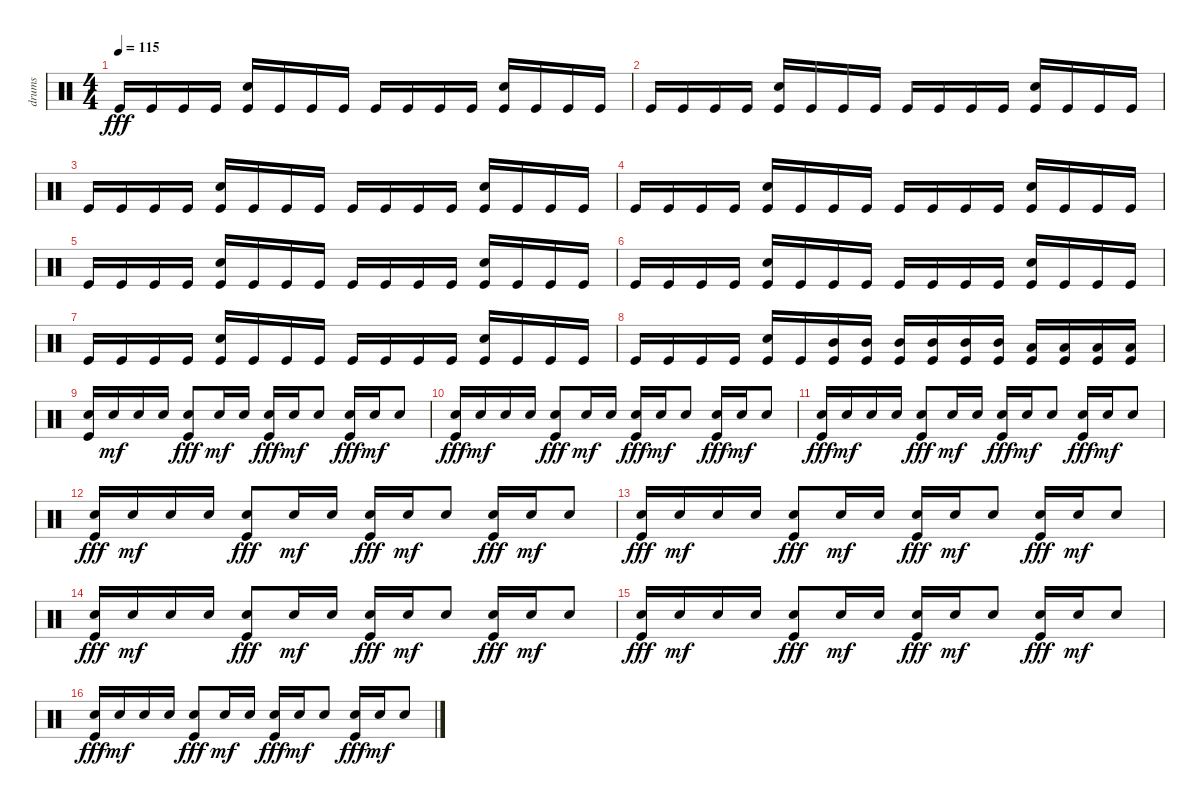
\track ("drums" "drums") {instrument percussion}
\staff {score}
\articulation defaults
\ts (4 4)
\tempo 115
\clef neutral
\ks c "Kick (hit)".16{dy fff} "Kick (hit)".16 "Kick (hit)".16 "Kick (hit)".16
("Electric Snare (hit)" "Kick (hit)").16 "Kick (hit)".16 "Kick (hit)".16 "Kick (hit)".16 "Kick (hit)".16 "Kick (hit)".16 "Kick (hit)".16 "Kick (hit)".16 ("Electric Snare (hit)" "Kick (hit)").16 "Kick (hit)".16 "Kick (hit)".16 "Kick (hit)".16 |
"Kick (hit)".16 "Kick (hit)".16 "Kick (hit)".16 "Kick (hit)".16 ("Electric Snare (hit)" "Kick (hit)").16 "Kick (hit)".16 "Kick (hit)".16 "Kick (hit)".16 "Kick (hit)".16 "Kick (hit)".16 "Kick (hit)".16 "Kick (hit)".16 ("Electric Snare (hit)" "Kick (hit)").16 "Kick (hit)".16 "Kick (hit)".16 "Kick (hit)".16 |
"Kick (hit)".16 "Kick (hit)".16 "Kick (hit)".16 "Kick (hit)".16 ("Electric Snare (hit)" "Kick (hit)").16 "Kick (hit)".16 "Kick (hit)".16 "Kick (hit)".16 "Kick (hit)".16 "Kick (hit)".16 "Kick (hit)".16 "Kick (hit)".16 ("Electric Snare (hit)" "Kick (hit)").16 "Kick (hit)".16 "Kick (hit)".16 "Kick (hit)".16 |
"Kick (hit)".16 "Kick (hit)".16 "Kick (hit)".16 "Kick (hit)".16 ("Electric Snare (hit)" "Kick (hit)").16 "Kick (hit)".16 "Kick (hit)".16 "Kick (hit)".16 "Kick (hit)".16 "Kick (hit)".16 "Kick (hit)".16 "Kick (hit)".16 ("Electric Snare (hit)" "Kick (hit)").16 "Kick (hit)".16 "Kick (hit)".16 "Kick (hit)".16 |
"Kick (hit)".16 "Kick (hit)".16 "Kick (hit)".16 "Kick (hit)".16 ("Electric Snare (hit)" "Kick (hit)").16 "Kick (hit)".16 "Kick (hit)".16 "Kick (hit)".16 "Kick (hit)".16 "Kick (hit)".16 "Kick (hit)".16 "Kick (hit)".16 ("Electric Snare (hit)" "Kick (hit)").16 "Kick (hit)".16 "Kick (hit)".16 "Kick (hit)".16 |
"Kick (hit)".16 "Kick (hit)".16 "Kick (hit)".16 "Kick (hit)".16 ("Electric Snare (hit)" "Kick (hit)").16 "Kick (hit)".16 "Kick (hit)".16 "Kick (hit)".16 "Kick (hit)".16 "Kick (hit)".16 "Kick (hit)".16 "Kick (hit)".16 ("Electric Snare (hit)" "Kick (hit)").16 "Kick (hit)".16 "Kick (hit)".16 "Kick (hit)".16 |
"Kick (hit)".16 "Kick (hit)".16 "Kick (hit)".16 "Kick (hit)".16 ("Electric Snare (hit)" "Kick (hit)").16 "Kick (hit)".16 "Kick (hit)".16 "Kick (hit)".16 "Kick (hit)".16 "Kick (hit)".16 "Kick (hit)".16 "Kick (hit)".16 ("Electric Snare (hit)" "Kick (hit)").16 "Kick (hit)".16 "Kick (hit)".16 "Kick (hit)".16 |
"Kick (hit)".16 "Kick (hit)".16 "Kick (hit)".16 "Kick (hit)".16 ("Electric Snare (hit)" "Kick (hit)").16 "Kick (hit)".16 ("Mid Tom (hit)" "Kick (hit)").16 ("Mid Tom (hit)" "Kick (hit)").16 ("Mid Tom (hit)" "Kick (hit)").16 ("Mid Tom (hit)" "Kick (hit)").16 ("Mid Tom (hit)" "Kick (hit)").16 ("Mid Tom (hit)" "Kick (hit)").16 ("Low Tom (hit)" "Kick (hit)").16 ("Low Tom (hit)" "Kick (hit)").16 ("Low Tom (hit)" "Kick (hit)").16 ("Low Tom (hit)" "Kick (hit)").16 |
("Electric Snare (hit)" "Kick (hit)").16 "Electric Snare (hit)".16{dy mf} "Electric Snare (hit)".16 "Electric Snare (hit)".16 ("Electric Snare (hit)" "Kick (hit)").8{dy fff} "Electric Snare (hit)".16{dy mf} "Electric Snare (hit)".16 ("Electric Snare (hit)" "Kick (hit)").16{dy fff} "Electric Snare (hit)".16{dy mf} "Electric Snare (hit)".8 ("Electric Snare (hit)" "Kick (hit)").16{dy fff} "Electric Snare (hit)".16{dy mf} "Electric Snare (hit)".8 |
("Electric Snare (hit)" "Kick (hit)").16{dy fff} "Electric Snare (hit)".16{dy mf} "Electric Snare (hit)".16 "Electric Snare (hit)".16 ("Electric Snare (hit)" "Kick (hit)").8{dy fff} "Electric Snare (hit)".16{dy mf} "Electric Snare (hit)".16 ("Electric Snare (hit)" "Kick (hit)").16{dy fff} "Electric Snare (hit)".16{dy mf} "Electric Snare (hit)".8 ("Electric Snare (hit)" "Kick (hit)").16{dy fff} "Electric Snare (hit)".16{dy mf} "Electric Snare (hit)".8 |
("Electric Snare (hit)" "Kick (hit)").16{dy fff} "Electric Snare (hit)".16{dy mf} "Electric Snare (hit)".16 "Electric Snare (hit)".16 ("Electric Snare (hit)" "Kick (hit)").8{dy fff} "Electric Snare (hit)".16{dy mf} "Electric Snare (hit)".16 ("Electric Snare (hit)" "Kick (hit)").16{dy fff} "Electric Snare (hit)".16{dy mf} "Electric Snare (hit)".8 ("Electric Snare (hit)" "Kick (hit)").16{dy fff} "Electric Snare (hit)".16{dy mf} "Electric Snare (hit)".8 |
("Electric Snare (hit)" "Kick (hit)").16{dy fff} "Electric Snare (hit)".16{dy mf} "Electric Snare (hit)".16 "Electric Snare (hit)".16 ("Electric Snare (hit)" "Kick (hit)").8{dy fff} "Electric Snare (hit)".16{dy mf} "Electric Snare (hit)".16 ("Electric Snare (hit)" "Kick (hit)").16{dy fff} "Electric Snare (hit)".16{dy mf} "Electric Snare (hit)".8 ("Electric Snare (hit)" "Kick (hit)").16{dy fff} "Electric Snare (hit)".16{dy mf} "Electric Snare (hit)".8 |
("Electric Snare (hit)" "Kick (hit)").16{dy fff} "Electric Snare (hit)".16{dy mf} "Electric Snare (hit)".16 "Electric Snare (hit)".16 ("Electric Snare (hit)" "Kick (hit)").8{dy fff} "Electric Snare (hit)".16{dy mf} "Electric Snare (hit)".16 ("Electric Snare (hit)" "Kick (hit)").16{dy fff} "Electric Snare (hit)".16{dy mf} "Electric Snare (hit)".8 ("Electric Snare (hit)" "Kick (hit)").16{dy fff} "Electric Snare (hit)".16{dy mf} "Electric Snare (hit)".8 |
("Electric Snare (hit)" "Kick (hit)").16{dy fff} "Electric Snare (hit)".16{dy mf} "Electric Snare (hit)".16 "Electric Snare (hit)".16 ("Electric Snare (hit)" "Kick (hit)").8{dy fff} "Electric Snare (hit)".16{dy mf} "Electric Snare (hit)".16 ("Electric Snare (hit)" "Kick (hit)").16{dy fff} "Electric Snare (hit)".16{dy mf} "Electric Snare (hit)".8 ("Electric Snare (hit)" "Kick (hit)").16{dy fff} "Electric Snare (hit)".16{dy mf} "Electric Snare (hit)".8 |
("Electric Snare (hit)" "Kick (hit)").16{dy fff} "Electric Snare (hit)".16{dy mf} "Electric Snare (hit)".16 "Electric Snare (hit)".16 ("Electric Snare (hit)" "Kick (hit)").8{dy fff} "Electric Snare (hit)".16{dy mf} "Electric Snare (hit)".16 ("Electric Snare (hit)" "Kick (hit)").16{dy fff} "Electric Snare (hit)".16{dy mf} "Electric Snare (hit)".8 ("Electric Snare (hit)" "Kick (hit)").16{dy fff} "Electric Snare (hit)".16{dy mf} "Electric Snare (hit)".8 |
("Electric Snare (hit)" "Kick (hit)").16{dy fff} "Electric Snare (hit)".16{dy mf} "Electric Snare (hit)".16 "Electric Snare (hit)".16 ("Electric Snare (hit)" "Kick (hit)").8{dy fff} "Electric Snare (hit)".16{dy mf} "Electric Snare (hit)".16 ("Electric Snare (hit)" "Kick (hit)").16{dy fff} "Electric Snare (hit)".16{dy mf} "Electric Snare (hit)".8 ("Electric Snare (hit)" "Kick (hit)").16{dy fff} "Electric Snare (hit)".16{dy mf} "Electric Snare (hit)".8
